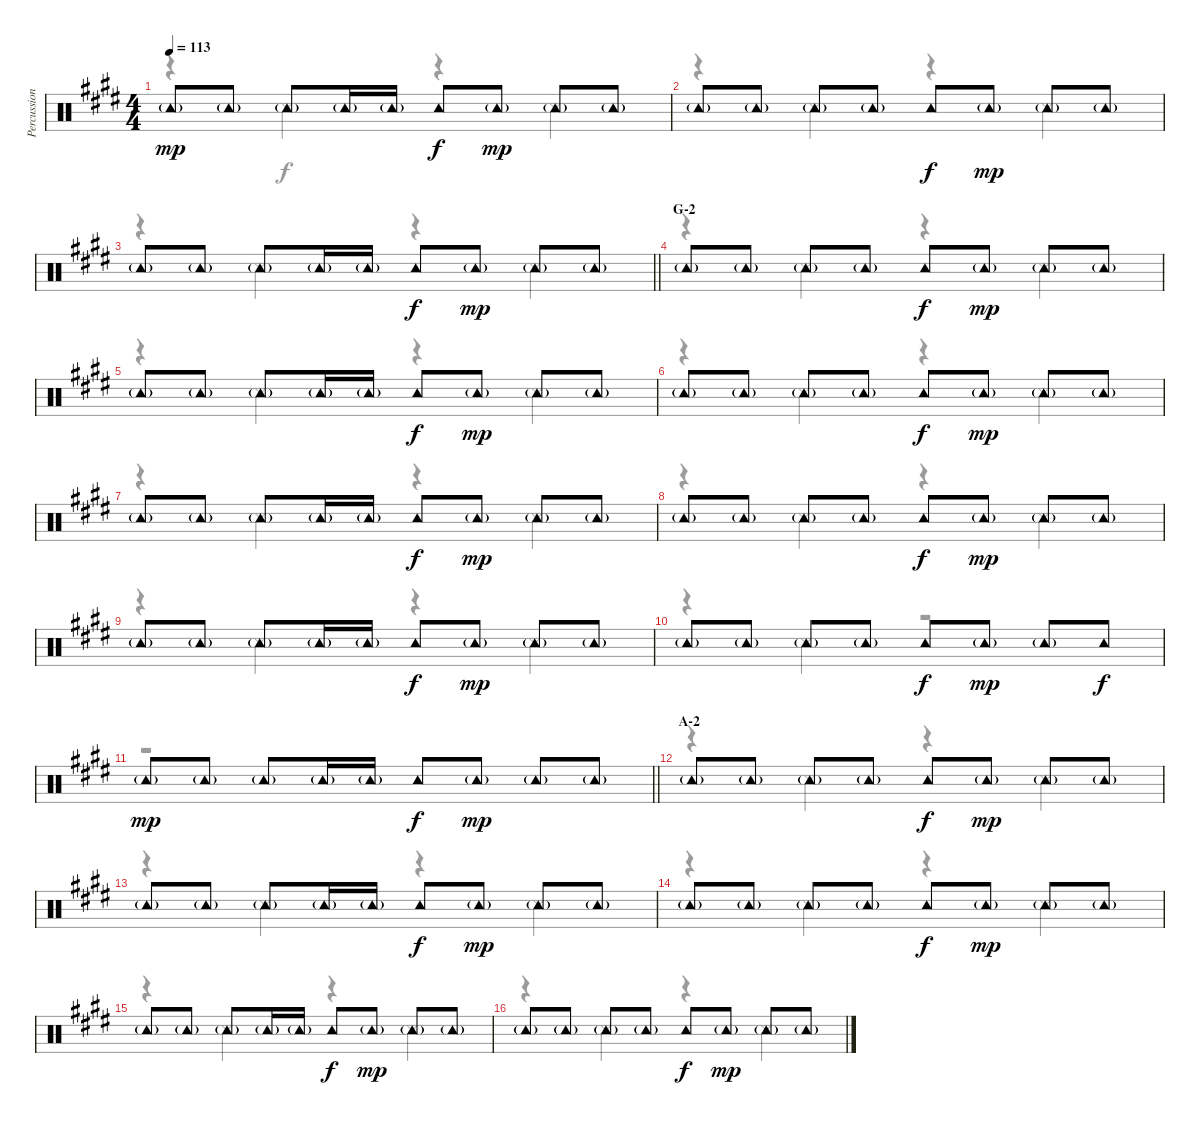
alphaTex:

\track ("Percussion" "Percussion") {instrument percussion}
\staff {score}
\articulation defaults
\voice
\ts (4 4)
\tempo 113
\clef neutral
\ks e "Tambourine (hit)"{g}.8{dy mp} "Tambourine (hit)"{g}.8 "Tambourine (hit)"{g}.8 "Tambourine (hit)"{g}.16 "Tambourine (hit)"{g}.16 "Tambourine (hit)".8{dy f} "Tambourine (hit)"{g}.8{dy mp} "Tambourine (hit)"{g}.8 "Tambourine (hit)"{g}.8
|
"Tambourine (hit)"{g}.8 "Tambourine (hit)"{g}.8 "Tambourine (hit)"{g}.8 "Tambourine (hit)"{g}.8 "Tambourine (hit)".8{dy f} "Tambourine (hit)"{g}.8{dy mp} "Tambourine (hit)"{g}.8 "Tambourine (hit)"{g}.8 |
\barLineRight lightlight "Tambourine (hit)"{g}.8 "Tambourine (hit)"{g}.8 "Tambourine (hit)"{g}.8 "Tambourine (hit)"{g}.16 "Tambourine (hit)"{g}.16 "Tambourine (hit)".8{dy f} "Tambourine (hit)"{g}.8{dy mp} "Tambourine (hit)"{g}.8 "Tambourine (hit)"{g}.8
|
\section ("" "G-2")
"Tambourine (hit)"{g}.8 "Tambourine (hit)"{g}.8 "Tambourine (hit)"{g}.8 "Tambourine (hit)"{g}.8 "Tambourine (hit)".8{dy f} "Tambourine (hit)"{g}.8{dy mp} "Tambourine (hit)"{g}.8 "Tambourine (hit)"{g}.8 |
"Tambourine (hit)"{g}.8 "Tambourine (hit)"{g}.8 "Tambourine (hit)"{g}.8 "Tambourine (hit)"{g}.16 "Tambourine (hit)"{g}.16 "Tambourine (hit)".8{dy f} "Tambourine (hit)"{g}.8{dy mp} "Tambourine (hit)"{g}.8 "Tambourine (hit)"{g}.8 |
"Tambourine (hit)"{g}.8 "Tambourine (hit)"{g}.8 "Tambourine (hit)"{g}.8 "Tambourine (hit)"{g}.8 "Tambourine (hit)".8{dy f} "Tambourine (hit)"{g}.8{dy mp} "Tambourine (hit)"{g}.8 "Tambourine (hit)"{g}.8 |
"Tambourine (hit)"{g}.8 "Tambourine (hit)"{g}.8 "Tambourine (hit)"{g}.8 "Tambourine (hit)"{g}.16 "Tambourine (hit)"{g}.16 "Tambourine (hit)".8{dy f} "Tambourine (hit)"{g}.8{dy mp} "Tambourine (hit)"{g}.8 "Tambourine (hit)"{g}.8 |
"Tambourine (hit)"{g}.8 "Tambourine (hit)"{g}.8 "Tambourine (hit)"{g}.8 "Tambourine (hit)"{g}.8 "Tambourine (hit)".8{dy f} "Tambourine (hit)"{g}.8{dy mp} "Tambourine (hit)"{g}.8 "Tambourine (hit)"{g}.8 |
"Tambourine (hit)"{g}.8 "Tambourine (hit)"{g}.8 "Tambourine (hit)"{g}.8 "Tambourine (hit)"{g}.16 "Tambourine (hit)"{g}.16 "Tambourine (hit)".8{dy f} "Tambourine (hit)"{g}.8{dy mp} "Tambourine (hit)"{g}.8 "Tambourine (hit)"{g}.8 |
"Tambourine (hit)"{g}.8 "Tambourine (hit)"{g}.8 "Tambourine (hit)"{g}.8 "Tambourine (hit)"{g}.8 "Tambourine (hit)".8{dy f} "Tambourine (hit)"{g}.8{dy mp} "Tambourine (hit)"{g}.8 "Tambourine (hit)".8{dy f} |
\barLineRight lightlight "Tambourine (hit)"{g}.8{dy mp} "Tambourine (hit)"{g}.8 "Tambourine (hit)"{g}.8 "Tambourine (hit)"{g}.16 "Tambourine (hit)"{g}.16 "Tambourine (hit)".8{dy f} "Tambourine (hit)"{g}.8{dy mp} "Tambourine (hit)"{g}.8 "Tambourine (hit)"{g}.8
|
\section ("" "A-2")
"Tambourine (hit)"{g}.8 "Tambourine (hit)"{g}.8 "Tambourine (hit)"{g}.8 "Tambourine (hit)"{g}.8 "Tambourine (hit)".8{dy f} "Tambourine (hit)"{g}.8{dy mp} "Tambourine (hit)"{g}.8 "Tambourine (hit)"{g}.8 |
"Tambourine (hit)"{g}.8 "Tambourine (hit)"{g}.8 "Tambourine (hit)"{g}.8 "Tambourine (hit)"{g}.16 "Tambourine (hit)"{g}.16 "Tambourine (hit)".8{dy f} "Tambourine (hit)"{g}.8{dy mp} "Tambourine (hit)"{g}.8 "Tambourine (hit)"{g}.8 |
"Tambourine (hit)"{g}.8 "Tambourine (hit)"{g}.8 "Tambourine (hit)"{g}.8 "Tambourine (hit)"{g}.8 "Tambourine (hit)".8{dy f} "Tambourine (hit)"{g}.8{dy mp} "Tambourine (hit)"{g}.8 "Tambourine (hit)"{g}.8 |
"Tambourine (hit)"{g}.8 "Tambourine (hit)"{g}.8 "Tambourine (hit)"{g}.8 "Tambourine (hit)"{g}.16 "Tambourine (hit)"{g}.16 "Tambourine (hit)".8{dy f} "Tambourine (hit)"{g}.8{dy mp} "Tambourine (hit)"{g}.8 "Tambourine (hit)"{g}.8 |
"Tambourine (hit)"{g}.8 "Tambourine (hit)"{g}.8 "Tambourine (hit)"{g}.8 "Tambourine (hit)"{g}.8 "Tambourine (hit)".8{dy f} "Tambourine (hit)"{g}.8{dy mp} "Tambourine (hit)"{g}.8 "Tambourine (hit)"{g}.8
\voice
\clef neutral
\ottava regular
\simile none
\ks e
r.4{dy f} "Snare (side stick) 3".4 r.4 "Snare (side stick) 3".4 |
r.4 "Snare (side stick) 3".4 r.4 "Snare (side stick) 3".4 |
\barLineRight lightlight
r.4 "Snare (side stick) 3".4 r.4 "Snare (side stick) 3".4 |
r.4 "Snare (side stick) 3".4 r.4 "Snare (side stick) 3".4 |
r.4 "Snare (side stick) 3".4 r.4 "Snare (side stick) 3".4 |
r.4 "Snare (side stick) 3".4 r.4 "Snare (side stick) 3".4 |
r.4 "Snare (side stick) 3".4 r.4 "Snare (side stick) 3".4 |
r.4 "Snare (side stick) 3".4 r.4 "Snare (side stick) 3".4 |
r.4 "Snare (side stick) 3".4 r.4 "Snare (side stick) 3".4 |
r.4 "Snare (side stick) 3".4 r.2 |
\barLineRight lightlight
r.1 |
r.4 "Snare (side stick) 3".4 r.4 "Snare (side stick) 3".4 |
r.4 "Snare (side stick) 3".4 r.4 "Snare (side stick) 3".4 |
r.4 "Snare (side stick) 3".4 r.4 "Snare (side stick) 3".4 |
r.4 "Snare (side stick) 3".4 r.4 "Snare (side stick) 3".4 |
r.4 "Snare (side stick) 3".4 r.4 "Snare (side stick) 3".4
